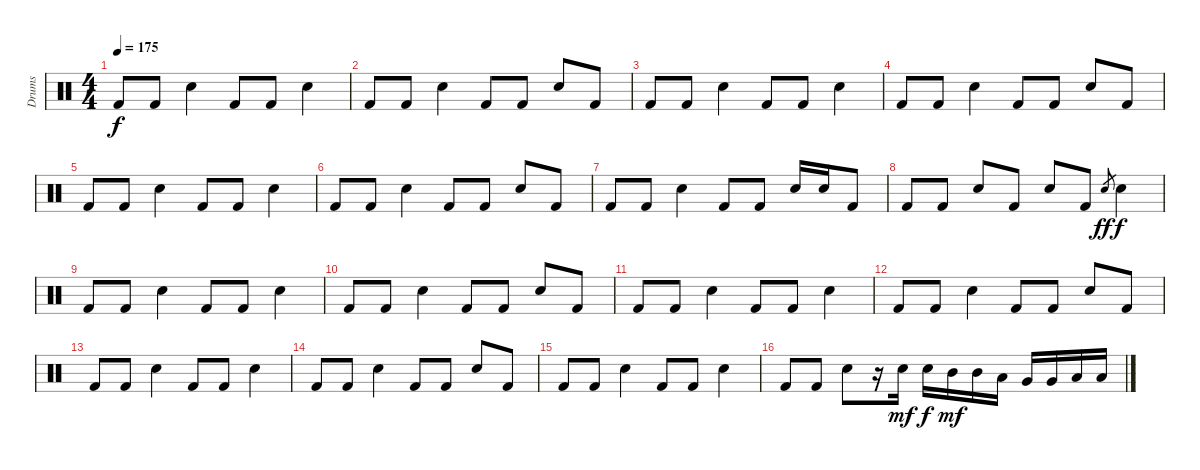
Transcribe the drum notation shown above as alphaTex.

\track ("Drums" "Drums") {instrument percussion}
\staff {score}
\articulation defaults
\ts (4 4)
\tempo 175
\clef neutral
\ks c "Kick (hit) 2".8{dy f} "Kick (hit) 2".8 "Snare (hit) 2".4 "Kick (hit) 2".8 "Kick (hit) 2".8 "Snare (hit) 2".4
|
"Kick (hit) 2".8 "Kick (hit) 2".8 "Snare (hit) 2".4 "Kick (hit) 2".8 "Kick (hit) 2".8 "Snare (hit) 2".8 "Kick (hit) 2".8 |
"Kick (hit) 2".8 "Kick (hit) 2".8 "Snare (hit) 2".4 "Kick (hit) 2".8 "Kick (hit) 2".8 "Snare (hit) 2".4 |
"Kick (hit) 2".8 "Kick (hit) 2".8 "Snare (hit) 2".4 "Kick (hit) 2".8 "Kick (hit) 2".8 "Snare (hit) 2".8 "Kick (hit) 2".8 |
"Kick (hit) 2".8 "Kick (hit) 2".8 "Snare (hit) 2".4 "Kick (hit) 2".8 "Kick (hit) 2".8 "Snare (hit) 2".4 |
"Kick (hit) 2".8 "Kick (hit) 2".8 "Snare (hit) 2".4 "Kick (hit) 2".8 "Kick (hit) 2".8 "Snare (hit) 2".8 "Kick (hit) 2".8 |
"Kick (hit) 2".8 "Kick (hit) 2".8 "Snare (hit) 2".4 "Kick (hit) 2".8 "Kick (hit) 2".8 "Snare (hit) 2".16 "Snare (hit) 2".16 "Kick (hit) 2".8 |
"Kick (hit) 2".8 "Kick (hit) 2".8 "Snare (hit) 2".8 "Kick (hit) 2".8 "Snare (hit) 2".8 "Kick (hit) 2".8 "Snare (hit) 2".8{gr dy ff} "Snare (hit) 2".4{dy f} |
"Kick (hit) 2".8 "Kick (hit) 2".8 "Snare (hit) 2".4 "Kick (hit) 2".8 "Kick (hit) 2".8 "Snare (hit) 2".4 |
"Kick (hit) 2".8 "Kick (hit) 2".8 "Snare (hit) 2".4 "Kick (hit) 2".8 "Kick (hit) 2".8 "Snare (hit) 2".8 "Kick (hit) 2".8 |
"Kick (hit) 2".8 "Kick (hit) 2".8 "Snare (hit) 2".4 "Kick (hit) 2".8 "Kick (hit) 2".8 "Snare (hit) 2".4 |
"Kick (hit) 2".8 "Kick (hit) 2".8 "Snare (hit) 2".4 "Kick (hit) 2".8 "Kick (hit) 2".8 "Snare (hit) 2".8 "Kick (hit) 2".8 |
"Kick (hit) 2".8 "Kick (hit) 2".8 "Snare (hit) 2".4 "Kick (hit) 2".8 "Kick (hit) 2".8 "Snare (hit) 2".4 |
"Kick (hit) 2".8 "Kick (hit) 2".8 "Snare (hit) 2".4 "Kick (hit) 2".8 "Kick (hit) 2".8 "Snare (hit) 2".8 "Kick (hit) 2".8 |
"Kick (hit) 2".8 "Kick (hit) 2".8 "Snare (hit) 2".4 "Kick (hit) 2".8 "Kick (hit) 2".8 "Snare (hit) 2".4 |
"Kick (hit) 2".8 "Kick (hit) 2".8 "Snare (hit) 2".8 r.16 "Snare (hit) 2".16{dy mf} "Snare (hit) 2".16{dy f} "Mid Tom (hit)".16{dy mf} "Mid Tom (hit)".16 "Low Tom (hit)".16 "Very Low Tom (hit)".16 "Very Low Tom (hit)".16 "Low Floor Tom (hit)".16 "Low Floor Tom (hit)".16
